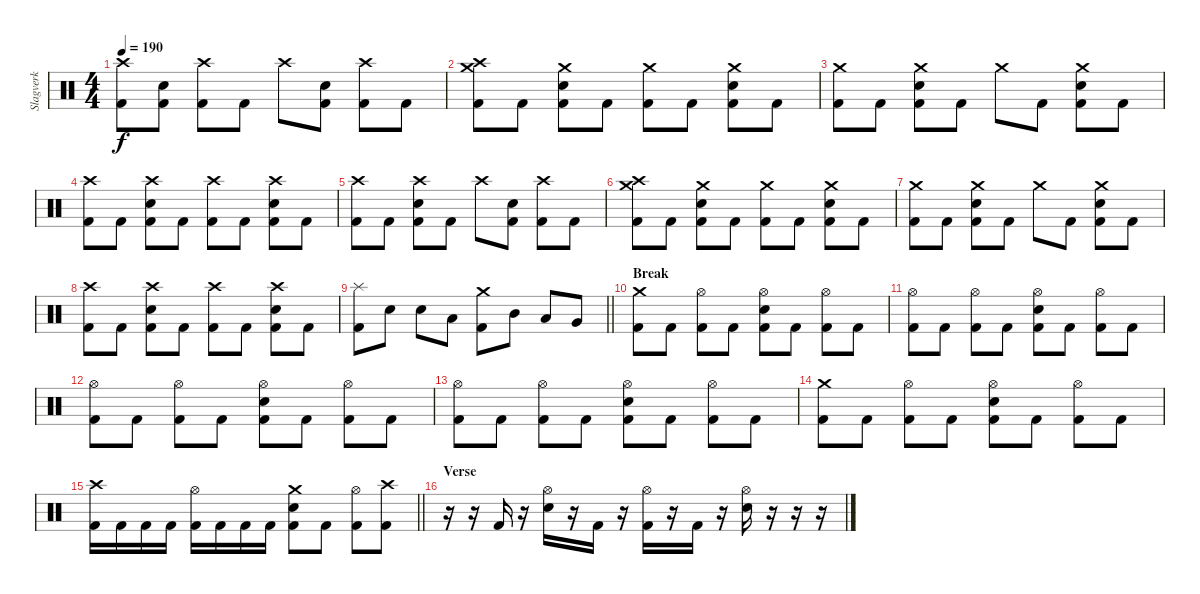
\track ("Slagverk" "Slagverk") {instrument percussion}
\staff {score}
\articulation defaults
\ts (4 4)
\tempo 190
\clef neutral
\ks c
("Crash high (hit)" "Kick (hit) 2").8{dy f} ("Electric Snare (hit)" "Kick (hit) 2").8 ("Crash high (hit)" "Kick (hit) 2").8 "Kick (hit) 2".8 "Crash high (hit)".8 ("Electric Snare (hit)" "Kick (hit) 2").8 ("Crash high (hit)" "Kick (hit) 2").8 "Kick (hit) 2".8 |
("Crash medium (hit)" "Crash high (hit)" "Kick (hit) 2").8 "Kick (hit) 2".8 ("Crash medium (hit)" "Electric Snare (hit)" "Kick (hit) 2").8 "Kick (hit) 2".8 ("Crash medium (hit)" "Kick (hit) 2").8 "Kick (hit) 2".8 ("Crash medium (hit)" "Electric Snare (hit)" "Kick (hit) 2").8 "Kick (hit) 2".8 |
("Crash medium (hit)" "Kick (hit) 2").8 "Kick (hit) 2".8 ("Crash medium (hit)" "Electric Snare (hit)" "Kick (hit) 2").8 "Kick (hit) 2".8 "Crash medium (hit)".8 "Kick (hit) 2".8 ("Crash medium (hit)" "Electric Snare (hit)" "Kick (hit) 2").8 "Kick (hit) 2".8 |
("Crash high (hit)" "Kick (hit) 2").8 "Kick (hit) 2".8 ("Crash high (hit)" "Electric Snare (hit)" "Kick (hit) 2").8 "Kick (hit) 2".8 ("Crash high (hit)" "Kick (hit) 2").8 "Kick (hit) 2".8 ("Crash high (hit)" "Electric Snare (hit)" "Kick (hit) 2").8 "Kick (hit) 2".8 |
("Crash high (hit)" "Kick (hit) 2").8 "Kick (hit) 2".8 ("Crash high (hit)" "Electric Snare (hit)" "Kick (hit) 2").8 "Kick (hit) 2".8 "Crash high (hit)".8 ("Electric Snare (hit)" "Kick (hit) 2").8 ("Crash high (hit)" "Kick (hit) 2").8 "Kick (hit) 2".8 |
("Crash medium (hit)" "Crash high (hit)" "Kick (hit) 2").8 "Kick (hit) 2".8 ("Crash medium (hit)" "Electric Snare (hit)" "Kick (hit) 2").8 "Kick (hit) 2".8 ("Crash medium (hit)" "Kick (hit) 2").8 "Kick (hit) 2".8 ("Crash medium (hit)" "Electric Snare (hit)" "Kick (hit) 2").8 "Kick (hit) 2".8 |
("Crash medium (hit)" "Kick (hit) 2").8 "Kick (hit) 2".8 ("Crash medium (hit)" "Electric Snare (hit)" "Kick (hit) 2").8 "Kick (hit) 2".8 "Crash medium (hit)".8 "Kick (hit) 2".8 ("Crash medium (hit)" "Electric Snare (hit)" "Kick (hit) 2").8 "Kick (hit) 2".8 |
("Crash high (hit)" "Kick (hit) 2").8 "Kick (hit) 2".8 ("Crash high (hit)" "Electric Snare (hit)" "Kick (hit) 2").8 "Kick (hit) 2".8 ("Crash high (hit)" "Kick (hit) 2").8 "Kick (hit) 2".8 ("Crash high (hit)" "Electric Snare (hit)" "Kick (hit) 2").8 "Kick (hit) 2".8 |
\barLineRight lightlight
("Splash (hit)" "Kick (hit) 2").8 "Electric Snare (hit)".8 "Electric Snare (hit)".8 "Low Tom (hit)".8 ("Crash medium (hit)" "Kick (hit) 2").8 "Mid Tom (hit)".8 "Low Tom (hit)".8 "Very Low Tom (hit)".8 |
\section ("" "Break")
("Crash medium (hit)" "Kick (hit) 2").8 "Kick (hit) 2".8 ("Hi-Hat (open)" "Kick (hit) 2").8 "Kick (hit) 2".8 ("Hi-Hat (open)" "Kick (hit) 2" "Electric Snare (hit)").8 "Kick (hit) 2".8 ("Hi-Hat (open)" "Kick (hit) 2").8 "Kick (hit) 2".8 |
("Hi-Hat (open)" "Kick (hit) 2").8 "Kick (hit) 2".8 ("Hi-Hat (open)" "Kick (hit) 2").8 "Kick (hit) 2".8 ("Hi-Hat (open)" "Kick (hit) 2" "Electric Snare (hit)").8 "Kick (hit) 2".8 ("Hi-Hat (open)" "Kick (hit) 2").8 "Kick (hit) 2".8 |
("Hi-Hat (open)" "Kick (hit) 2").8 "Kick (hit) 2".8 ("Hi-Hat (open)" "Kick (hit) 2").8 "Kick (hit) 2".8 ("Hi-Hat (open)" "Kick (hit) 2" "Electric Snare (hit)").8 "Kick (hit) 2".8 ("Hi-Hat (open)" "Kick (hit) 2").8 "Kick (hit) 2".8 |
("Hi-Hat (open)" "Kick (hit) 2").8 "Kick (hit) 2".8 ("Hi-Hat (open)" "Kick (hit) 2").8 "Kick (hit) 2".8 ("Hi-Hat (open)" "Kick (hit) 2" "Electric Snare (hit)").8 "Kick (hit) 2".8 ("Hi-Hat (open)" "Kick (hit) 2").8 "Kick (hit) 2".8 |
("Crash medium (hit)" "Kick (hit) 2").8 "Kick (hit) 2".8 ("Hi-Hat (open)" "Kick (hit) 2").8 "Kick (hit) 2".8 ("Hi-Hat (open)" "Kick (hit) 2" "Electric Snare (hit)").8 "Kick (hit) 2".8 ("Hi-Hat (open)" "Kick (hit) 2").8 "Kick (hit) 2".8 |
\barLineRight lightlight
("Crash high (hit)" "Kick (hit) 2").16 "Kick (hit) 2".16 "Kick (hit) 2".16 "Kick (hit) 2".16 ("Hi-Hat (open)" "Kick (hit) 2").16 "Kick (hit) 2".16 "Kick (hit) 2".16 "Kick (hit) 2".16 ("Crash medium (hit)" "Kick (hit) 2" "Electric Snare (hit)").8 "Kick (hit) 2".8 ("Hi-Hat (open)" "Kick (hit) 2").8 ("Crash high (hit)" "Kick (hit) 2").8 |
\section ("" "Verse")
r.16 r.16 "Kick (hit) 2".16 r.16 ("Electric Snare (hit)" "Hi-Hat (open)").16 r.16 "Kick (hit) 2".16 r.16 ("Hi-Hat (open)" "Kick (hit) 2").16 r.16 "Kick (hit) 2".16 r.16 ("Electric Snare (hit)" "Hi-Hat (open)").16 r.16 r.16 r.16
